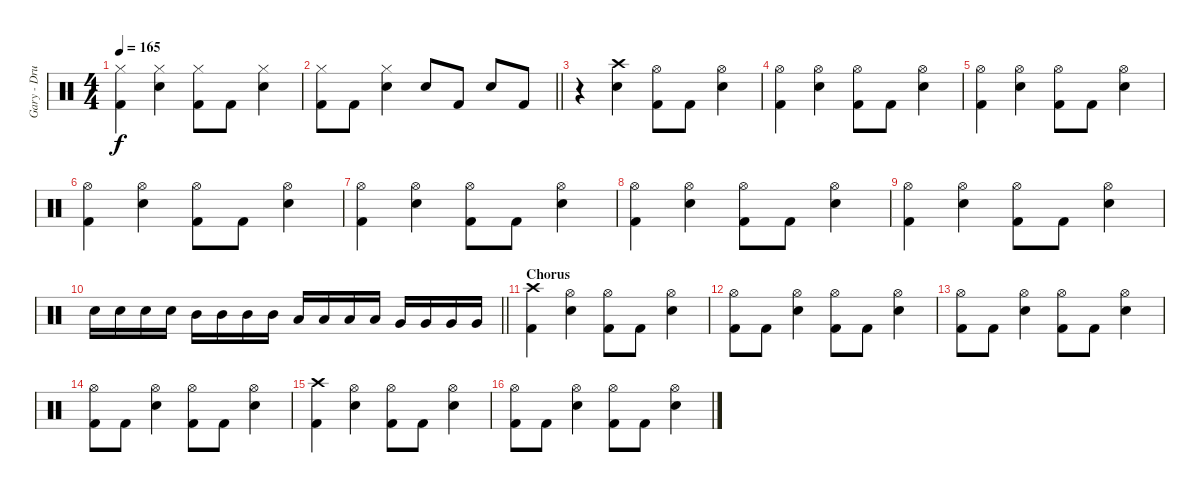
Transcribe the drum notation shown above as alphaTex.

\track ("Gary - Drums" "Gary - Dru") {instrument percussion}
\staff {score}
\articulation defaults
\ts (4 4)
\tempo 165
\clef neutral
\ks c
("Hi-Hat (closed)" "Kick (hit) 2").4{dy f} ("Hi-Hat (closed)" "Snare (hit) 2").4 ("Hi-Hat (closed)" "Kick (hit) 2").8 "Kick (hit) 2".8 ("Hi-Hat (closed)" "Snare (hit) 2").4 |
\barLineRight lightlight
("Hi-Hat (closed)" "Kick (hit) 2").8 "Kick (hit) 2".8 ("Hi-Hat (closed)" "Snare (hit) 2").4 "Snare (hit) 2".8 "Kick (hit) 2".8 "Snare (hit) 2".8 "Kick (hit) 2".8 |
r.4 ("Crash high (hit)" "Snare (hit) 2").4 ("Hi-Hat (open)" "Kick (hit) 2").8 "Kick (hit) 2".8 ("Hi-Hat (open)" "Snare (hit) 2").4 |
("Hi-Hat (open)" "Kick (hit) 2").4 ("Hi-Hat (open)" "Snare (hit) 2").4 ("Hi-Hat (open)" "Kick (hit) 2").8 "Kick (hit) 2".8 ("Hi-Hat (open)" "Snare (hit) 2").4 |
("Hi-Hat (open)" "Kick (hit) 2").4 ("Hi-Hat (open)" "Snare (hit) 2").4 ("Hi-Hat (open)" "Kick (hit) 2").8 "Kick (hit) 2".8 ("Hi-Hat (open)" "Snare (hit) 2").4 |
("Hi-Hat (open)" "Kick (hit) 2").4 ("Hi-Hat (open)" "Snare (hit) 2").4 ("Hi-Hat (open)" "Kick (hit) 2").8 "Kick (hit) 2".8 ("Hi-Hat (open)" "Snare (hit) 2").4 |
("Hi-Hat (open)" "Kick (hit) 2").4 ("Hi-Hat (open)" "Snare (hit) 2").4 ("Hi-Hat (open)" "Kick (hit) 2").8 "Kick (hit) 2".8 ("Hi-Hat (open)" "Snare (hit) 2").4 |
("Hi-Hat (open)" "Kick (hit) 2").4 ("Hi-Hat (open)" "Snare (hit) 2").4 ("Hi-Hat (open)" "Kick (hit) 2").8 "Kick (hit) 2".8 ("Hi-Hat (open)" "Snare (hit) 2").4 |
("Hi-Hat (open)" "Kick (hit) 2").4 ("Hi-Hat (open)" "Snare (hit) 2").4 ("Hi-Hat (open)" "Kick (hit) 2").8 "Kick (hit) 2".8 ("Hi-Hat (open)" "Snare (hit) 2").4 |
\barLineRight lightlight "Snare (hit) 2".16 "Snare (hit) 2".16 "Snare (hit) 2".16 "Snare (hit) 2".16 "Mid Tom (hit)".16 "Mid Tom (hit)".16 "Mid Tom (hit)".16 "Mid Tom (hit)".16 "Low Tom (hit)".16 "Low Tom (hit)".16 "Low Tom (hit)".16 "Low Tom (hit)".16 "Very Low Tom (hit)".16 "Very Low Tom (hit)".16 "Very Low Tom (hit)".16 "Very Low Tom (hit)".16
|
\section ("" "Chorus")
("Crash high (hit)" "Kick (hit) 2").4 ("Hi-Hat (open)" "Snare (hit) 2").4 ("Hi-Hat (open)" "Kick (hit) 2").8 "Kick (hit) 2".8 ("Hi-Hat (open)" "Snare (hit) 2").4 |
("Hi-Hat (open)" "Kick (hit) 2").8 "Kick (hit) 2".8 ("Hi-Hat (open)" "Snare (hit) 2").4 ("Hi-Hat (open)" "Kick (hit) 2").8 "Kick (hit) 2".8 ("Hi-Hat (open)" "Snare (hit) 2").4 |
("Hi-Hat (open)" "Kick (hit) 2").8 "Kick (hit) 2".8 ("Hi-Hat (open)" "Snare (hit) 2").4 ("Hi-Hat (open)" "Kick (hit) 2").8 "Kick (hit) 2".8 ("Hi-Hat (open)" "Snare (hit) 2").4 |
("Hi-Hat (open)" "Kick (hit) 2").8 "Kick (hit) 2".8 ("Hi-Hat (open)" "Snare (hit) 2").4 ("Hi-Hat (open)" "Kick (hit) 2").8 "Kick (hit) 2".8 ("Hi-Hat (open)" "Snare (hit) 2").4 |
("Crash high (hit)" "Kick (hit) 2").4 ("Hi-Hat (open)" "Snare (hit) 2").4 ("Hi-Hat (open)" "Kick (hit) 2").8 "Kick (hit) 2".8 ("Hi-Hat (open)" "Snare (hit) 2").4 |
("Hi-Hat (open)" "Kick (hit) 2").8 "Kick (hit) 2".8 ("Hi-Hat (open)" "Snare (hit) 2").4 ("Hi-Hat (open)" "Kick (hit) 2").8 "Kick (hit) 2".8 ("Hi-Hat (open)" "Snare (hit) 2").4
